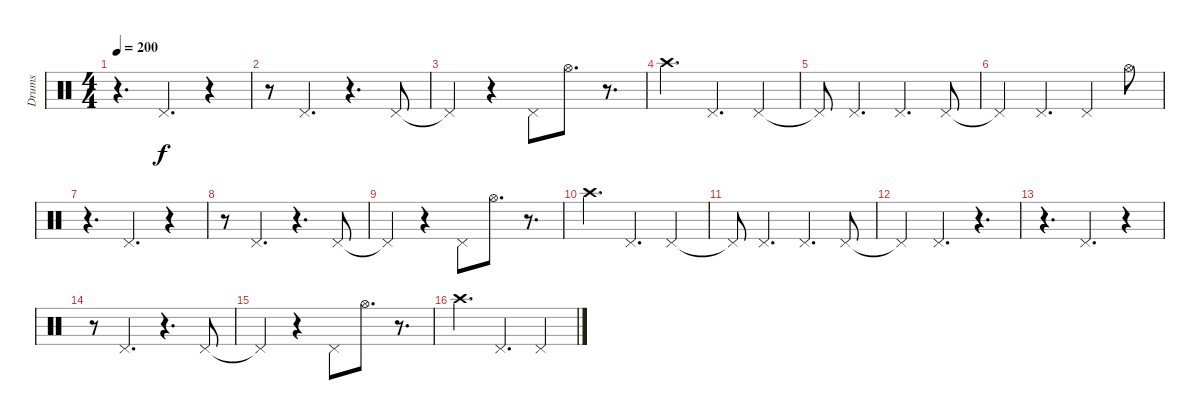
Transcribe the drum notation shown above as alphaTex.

\track ("Drums" "Drums") {instrument percussion}
\staff {score}
\articulation defaults
\ts (4 4)
\tempo 200
\clef neutral
\ks c
r.4{d dy f} "Pedal Hi-Hat (hit)".4{d} r.4 |
r.8 "Pedal Hi-Hat (hit)".4{d} r.4{d} "Pedal Hi-Hat (hit)".8 |
"Pedal Hi-Hat (hit)"{t}.4 r.4 "Pedal Hi-Hat (hit)".8 "Hi-Hat (open)".8{d} r.8{d} |
"Crash high (hit)".4{d} "Pedal Hi-Hat (hit)".4{d} "Pedal Hi-Hat (hit)".4 |
"Pedal Hi-Hat (hit)"{t}.8 "Pedal Hi-Hat (hit)".4{d} "Pedal Hi-Hat (hit)".4{d} "Pedal Hi-Hat (hit)".8 |
"Pedal Hi-Hat (hit)"{t}.4 "Pedal Hi-Hat (hit)".4{d} "Pedal Hi-Hat (hit)".4 "Hi-Hat (open)".8 |
r.4{d} "Pedal Hi-Hat (hit)".4{d} r.4 |
r.8 "Pedal Hi-Hat (hit)".4{d} r.4{d} "Pedal Hi-Hat (hit)".8 |
"Pedal Hi-Hat (hit)"{t}.4 r.4 "Pedal Hi-Hat (hit)".8 "Hi-Hat (open)".8{d} r.8{d} |
"Crash high (hit)".4{d} "Pedal Hi-Hat (hit)".4{d} "Pedal Hi-Hat (hit)".4 |
"Pedal Hi-Hat (hit)"{t}.8 "Pedal Hi-Hat (hit)".4{d} "Pedal Hi-Hat (hit)".4{d} "Pedal Hi-Hat (hit)".8 |
"Pedal Hi-Hat (hit)"{t}.4 "Pedal Hi-Hat (hit)".4{d} r.4{d} |
r.4{d} "Pedal Hi-Hat (hit)".4{d} r.4 |
r.8 "Pedal Hi-Hat (hit)".4{d} r.4{d} "Pedal Hi-Hat (hit)".8 |
"Pedal Hi-Hat (hit)"{t}.4 r.4 "Pedal Hi-Hat (hit)".8 "Hi-Hat (open)".8{d} r.8{d} |
"Crash high (hit)".4{d} "Pedal Hi-Hat (hit)".4{d} "Pedal Hi-Hat (hit)".4
